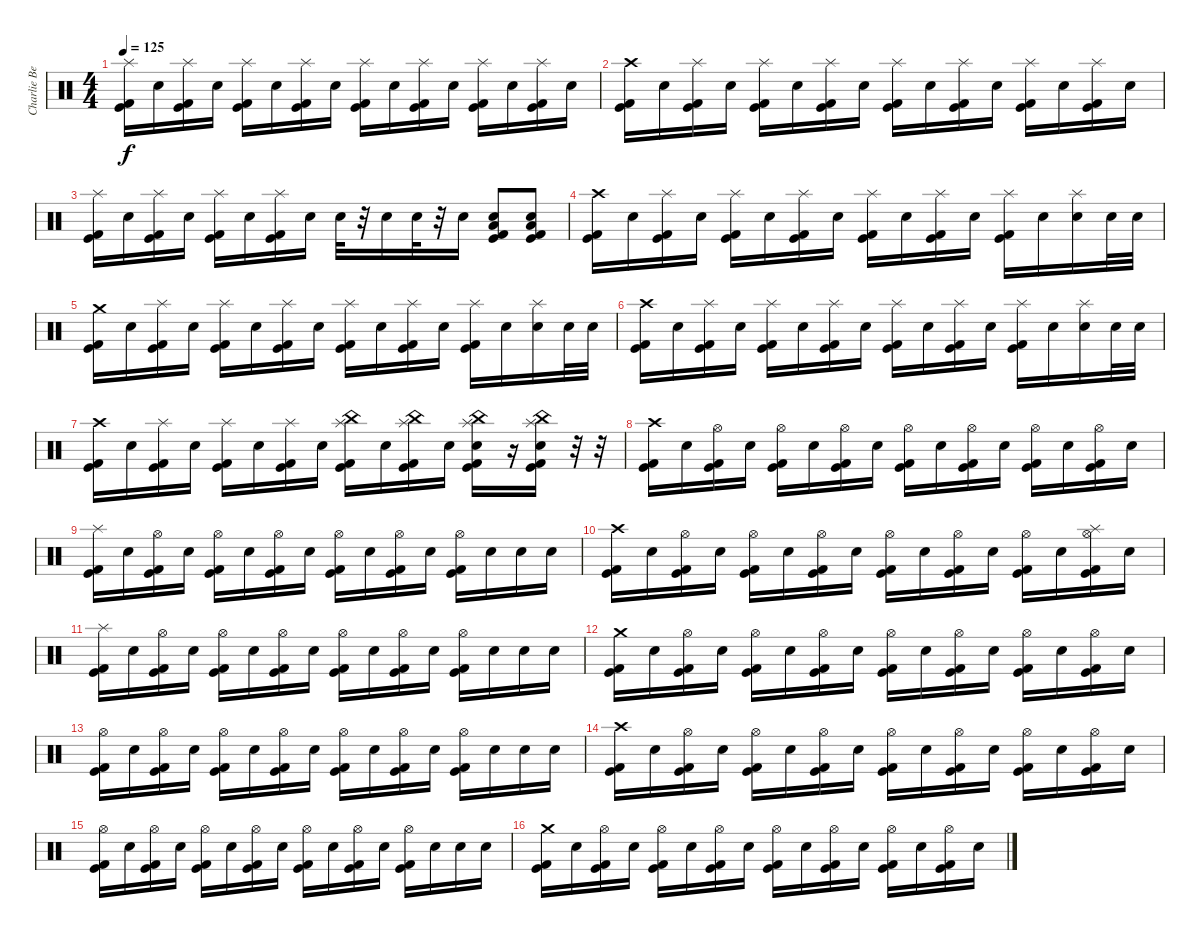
\track ("Charlie Benante" "Charlie Be") {instrument percussion}
\staff {score}
\articulation defaults
\ts (4 4)
\tempo 125
\clef neutral
\ks c
("Splash (hit)" "Kick (hit) 2" "Kick (hit)").16{dy f} "Electric Snare (hit)".16 ("Splash (hit)" "Kick (hit) 2" "Kick (hit)").16 "Electric Snare (hit)".16 ("Splash (hit)" "Kick (hit) 2" "Kick (hit)").16 "Electric Snare (hit)".16 ("Splash (hit)" "Kick (hit) 2" "Kick (hit)").16 "Electric Snare (hit)".16 ("Splash (hit)" "Kick (hit) 2" "Kick (hit)").16 "Electric Snare (hit)".16 ("Splash (hit)" "Kick (hit) 2" "Kick (hit)").16 "Electric Snare (hit)".16 ("Splash (hit)" "Kick (hit) 2" "Kick (hit)").16 "Electric Snare (hit)".16 ("Splash (hit)" "Kick (hit) 2" "Kick (hit)").16 "Electric Snare (hit)".16 |
("Crash high (hit)" "Kick (hit) 2" "Kick (hit)").16 "Electric Snare (hit)".16 ("Splash (hit)" "Kick (hit) 2" "Kick (hit)").16 "Electric Snare (hit)".16 ("Splash (hit)" "Kick (hit) 2" "Kick (hit)").16 "Electric Snare (hit)".16 ("Splash (hit)" "Kick (hit) 2" "Kick (hit)").16 "Electric Snare (hit)".16 ("Splash (hit)" "Kick (hit) 2" "Kick (hit)").16 "Electric Snare (hit)".16 ("Splash (hit)" "Kick (hit) 2" "Kick (hit)").16 "Electric Snare (hit)".16 ("Splash (hit)" "Kick (hit) 2" "Kick (hit)").16 "Electric Snare (hit)".16 ("Splash (hit)" "Kick (hit) 2" "Kick (hit)").16 "Electric Snare (hit)".16 |
("Splash (hit)" "Kick (hit) 2" "Kick (hit)").16 "Electric Snare (hit)".16 ("Splash (hit)" "Kick (hit) 2" "Kick (hit)").16 "Electric Snare (hit)".16 ("Splash (hit)" "Kick (hit) 2" "Kick (hit)").16 "Electric Snare (hit)".16 ("Splash (hit)" "Kick (hit) 2" "Kick (hit)").16 "Electric Snare (hit)".16 "Electric Snare (hit)".32 r.32 "Electric Snare (hit)".16 "Electric Snare (hit)".32 r.32 "Electric Snare (hit)".16 ("Low Floor Tom (hit)" "Electric Snare (hit)" "Kick (hit) 2" "Kick (hit)").8 ("Low Floor Tom (hit)" "Electric Snare (hit)" "Kick (hit) 2" "Kick (hit)").8 |
("Crash high (hit)" "Kick (hit) 2" "Kick (hit)").16 "Electric Snare (hit)".16 ("Splash (hit)" "Kick (hit) 2" "Kick (hit)").16 "Electric Snare (hit)".16 ("Splash (hit)" "Kick (hit) 2" "Kick (hit)").16 "Electric Snare (hit)".16 ("Splash (hit)" "Kick (hit) 2" "Kick (hit)").16 "Electric Snare (hit)".16 ("Splash (hit)" "Kick (hit) 2" "Kick (hit)").16 "Electric Snare (hit)".16 ("Splash (hit)" "Kick (hit) 2" "Kick (hit)").16 "Electric Snare (hit)".16 ("Splash (hit)" "Kick (hit) 2" "Kick (hit)").16 "Electric Snare (hit)".16 ("Splash (hit)" "Electric Snare (hit)").16 "Electric Snare (hit)".32 "Electric Snare (hit)".32 |
("Crash medium (hit)" "Kick (hit) 2" "Kick (hit)").16 "Electric Snare (hit)".16 ("Splash (hit)" "Kick (hit) 2" "Kick (hit)").16 "Electric Snare (hit)".16 ("Splash (hit)" "Kick (hit) 2" "Kick (hit)").16 "Electric Snare (hit)".16 ("Splash (hit)" "Kick (hit) 2" "Kick (hit)").16 "Electric Snare (hit)".16 ("Splash (hit)" "Kick (hit) 2" "Kick (hit)").16 "Electric Snare (hit)".16 ("Splash (hit)" "Kick (hit) 2" "Kick (hit)").16 "Electric Snare (hit)".16 ("Splash (hit)" "Kick (hit) 2" "Kick (hit)").16 "Electric Snare (hit)".16 ("Splash (hit)" "Electric Snare (hit)").16 "Electric Snare (hit)".32 "Electric Snare (hit)".32 |
("Crash high (hit)" "Kick (hit) 2" "Kick (hit)").16 "Electric Snare (hit)".16 ("Splash (hit)" "Kick (hit) 2" "Kick (hit)").16 "Electric Snare (hit)".16 ("Splash (hit)" "Kick (hit) 2" "Kick (hit)").16 "Electric Snare (hit)".16 ("Splash (hit)" "Kick (hit) 2" "Kick (hit)").16 "Electric Snare (hit)".16 ("Splash (hit)" "Kick (hit) 2" "Kick (hit)").16 "Electric Snare (hit)".16 ("Splash (hit)" "Kick (hit) 2" "Kick (hit)").16 "Electric Snare (hit)".16 ("Splash (hit)" "Kick (hit) 2" "Kick (hit)").16 "Electric Snare (hit)".16 ("Splash (hit)" "Electric Snare (hit)").16 "Electric Snare (hit)".32 "Electric Snare (hit)".32 |
("Crash high (hit)" "Kick (hit) 2" "Kick (hit)").16 "Electric Snare (hit)".16 ("Splash (hit)" "Kick (hit) 2" "Kick (hit)").16 "Electric Snare (hit)".16 ("Splash (hit)" "Kick (hit) 2" "Kick (hit)").16 "Electric Snare (hit)".16 ("Splash (hit)" "Kick (hit) 2" "Kick (hit)").16 "Electric Snare (hit)".16 ("China (hit)" "Splash (hit)" "Kick (hit) 2" "Kick (hit)").16 "Electric Snare (hit)".16 ("China (hit)" "Splash (hit)" "Kick (hit) 2" "Kick (hit)").16 "Electric Snare (hit)".16 ("China (hit)" "Splash (hit)" "Electric Snare (hit)" "Kick (hit) 2" "Kick (hit)").16 r.16 ("China (hit)" "Splash (hit)" "Electric Snare (hit)" "Kick (hit) 2" "Kick (hit)").16 r.32 r.32 |
("Crash high (hit)" "Kick (hit) 2" "Kick (hit)").16 "Electric Snare (hit)".16 ("Hi-Hat (open)" "Kick (hit) 2" "Kick (hit)").16 "Electric Snare (hit)".16 ("Hi-Hat (open)" "Kick (hit) 2" "Kick (hit)").16 "Electric Snare (hit)".16 ("Hi-Hat (open)" "Kick (hit) 2" "Kick (hit)").16 "Electric Snare (hit)".16 ("Hi-Hat (open)" "Kick (hit) 2" "Kick (hit)").16 "Electric Snare (hit)".16 ("Hi-Hat (open)" "Kick (hit) 2" "Kick (hit)").16 "Electric Snare (hit)".16 ("Hi-Hat (open)" "Kick (hit) 2" "Kick (hit)").16 "Electric Snare (hit)".16 ("Hi-Hat (open)" "Kick (hit) 2" "Kick (hit)").16 "Electric Snare (hit)".16 |
("Splash (hit)" "Kick (hit) 2" "Kick (hit)").16 "Electric Snare (hit)".16 ("Hi-Hat (open)" "Kick (hit) 2" "Kick (hit)").16 "Electric Snare (hit)".16 ("Hi-Hat (open)" "Kick (hit) 2" "Kick (hit)").16 "Electric Snare (hit)".16 ("Hi-Hat (open)" "Kick (hit) 2" "Kick (hit)").16 "Electric Snare (hit)".16 ("Hi-Hat (open)" "Kick (hit) 2" "Kick (hit)").16 "Electric Snare (hit)".16 ("Hi-Hat (open)" "Kick (hit) 2" "Kick (hit)").16 "Electric Snare (hit)".16 ("Hi-Hat (open)" "Kick (hit) 2" "Kick (hit)").16 "Electric Snare (hit)".16 "Electric Snare (hit)".16 "Electric Snare (hit)".16 |
("Crash high (hit)" "Kick (hit) 2" "Kick (hit)").16 "Electric Snare (hit)".16 ("Hi-Hat (open)" "Kick (hit) 2" "Kick (hit)").16 "Electric Snare (hit)".16 ("Hi-Hat (open)" "Kick (hit) 2" "Kick (hit)").16 "Electric Snare (hit)".16 ("Hi-Hat (open)" "Kick (hit) 2" "Kick (hit)").16 "Electric Snare (hit)".16 ("Hi-Hat (open)" "Kick (hit) 2" "Kick (hit)").16 "Electric Snare (hit)".16 ("Hi-Hat (open)" "Kick (hit) 2" "Kick (hit)").16 "Electric Snare (hit)".16 ("Hi-Hat (open)" "Kick (hit) 2" "Kick (hit)").16 "Electric Snare (hit)".16 ("Splash (hit)" "Hi-Hat (open)" "Kick (hit) 2" "Kick (hit)").16 "Electric Snare (hit)".16 |
("Splash (hit)" "Kick (hit) 2" "Kick (hit)").16 "Electric Snare (hit)".16 ("Hi-Hat (open)" "Kick (hit) 2" "Kick (hit)").16 "Electric Snare (hit)".16 ("Hi-Hat (open)" "Kick (hit) 2" "Kick (hit)").16 "Electric Snare (hit)".16 ("Hi-Hat (open)" "Kick (hit) 2" "Kick (hit)").16 "Electric Snare (hit)".16 ("Hi-Hat (open)" "Kick (hit) 2" "Kick (hit)").16 "Electric Snare (hit)".16 ("Hi-Hat (open)" "Kick (hit) 2" "Kick (hit)").16 "Electric Snare (hit)".16 ("Hi-Hat (open)" "Kick (hit) 2" "Kick (hit)").16 "Electric Snare (hit)".16 "Electric Snare (hit)".16 "Electric Snare (hit)".16 |
("Crash medium (hit)" "Kick (hit) 2" "Kick (hit)").16 "Electric Snare (hit)".16 ("Hi-Hat (open)" "Kick (hit) 2" "Kick (hit)").16 "Electric Snare (hit)".16 ("Hi-Hat (open)" "Kick (hit) 2" "Kick (hit)").16 "Electric Snare (hit)".16 ("Hi-Hat (open)" "Kick (hit) 2" "Kick (hit)").16 "Electric Snare (hit)".16 ("Hi-Hat (open)" "Kick (hit) 2" "Kick (hit)").16 "Electric Snare (hit)".16 ("Hi-Hat (open)" "Kick (hit) 2" "Kick (hit)").16 "Electric Snare (hit)".16 ("Hi-Hat (open)" "Kick (hit) 2" "Kick (hit)").16 "Electric Snare (hit)".16 ("Hi-Hat (open)" "Kick (hit) 2" "Kick (hit)").16 "Electric Snare (hit)".16 |
("Hi-Hat (open)" "Kick (hit) 2" "Kick (hit)").16 "Electric Snare (hit)".16 ("Hi-Hat (open)" "Kick (hit) 2" "Kick (hit)").16 "Electric Snare (hit)".16 ("Hi-Hat (open)" "Kick (hit) 2" "Kick (hit)").16 "Electric Snare (hit)".16 ("Hi-Hat (open)" "Kick (hit) 2" "Kick (hit)").16 "Electric Snare (hit)".16 ("Hi-Hat (open)" "Kick (hit) 2" "Kick (hit)").16 "Electric Snare (hit)".16 ("Hi-Hat (open)" "Kick (hit) 2" "Kick (hit)").16 "Electric Snare (hit)".16 ("Hi-Hat (open)" "Kick (hit) 2" "Kick (hit)").16 "Electric Snare (hit)".16 "Electric Snare (hit)".16 "Electric Snare (hit)".16 |
("Crash high (hit)" "Kick (hit) 2" "Kick (hit)").16 "Electric Snare (hit)".16 ("Hi-Hat (open)" "Kick (hit) 2" "Kick (hit)").16 "Electric Snare (hit)".16 ("Hi-Hat (open)" "Kick (hit) 2" "Kick (hit)").16 "Electric Snare (hit)".16 ("Hi-Hat (open)" "Kick (hit) 2" "Kick (hit)").16 "Electric Snare (hit)".16 ("Hi-Hat (open)" "Kick (hit) 2" "Kick (hit)").16 "Electric Snare (hit)".16 ("Hi-Hat (open)" "Kick (hit) 2" "Kick (hit)").16 "Electric Snare (hit)".16 ("Hi-Hat (open)" "Kick (hit) 2" "Kick (hit)").16 "Electric Snare (hit)".16 ("Hi-Hat (open)" "Kick (hit) 2" "Kick (hit)").16 "Electric Snare (hit)".16 |
("Hi-Hat (open)" "Kick (hit) 2" "Kick (hit)").16 "Electric Snare (hit)".16 ("Hi-Hat (open)" "Kick (hit) 2" "Kick (hit)").16 "Electric Snare (hit)".16 ("Hi-Hat (open)" "Kick (hit) 2" "Kick (hit)").16 "Electric Snare (hit)".16 ("Hi-Hat (open)" "Kick (hit) 2" "Kick (hit)").16 "Electric Snare (hit)".16 ("Hi-Hat (open)" "Kick (hit) 2" "Kick (hit)").16 "Electric Snare (hit)".16 ("Hi-Hat (open)" "Kick (hit) 2" "Kick (hit)").16 "Electric Snare (hit)".16 ("Hi-Hat (open)" "Kick (hit) 2" "Kick (hit)").16 "Electric Snare (hit)".16 "Electric Snare (hit)".16 "Electric Snare (hit)".16 |
("Crash medium (hit)" "Kick (hit) 2" "Kick (hit)").16 "Electric Snare (hit)".16 ("Hi-Hat (open)" "Kick (hit) 2" "Kick (hit)").16 "Electric Snare (hit)".16 ("Hi-Hat (open)" "Kick (hit) 2" "Kick (hit)").16 "Electric Snare (hit)".16 ("Hi-Hat (open)" "Kick (hit) 2" "Kick (hit)").16 "Electric Snare (hit)".16 ("Hi-Hat (open)" "Kick (hit) 2" "Kick (hit)").16 "Electric Snare (hit)".16 ("Hi-Hat (open)" "Kick (hit) 2" "Kick (hit)").16 "Electric Snare (hit)".16 ("Hi-Hat (open)" "Kick (hit) 2" "Kick (hit)").16 "Electric Snare (hit)".16 ("Hi-Hat (open)" "Kick (hit) 2" "Kick (hit)").16 "Electric Snare (hit)".16
